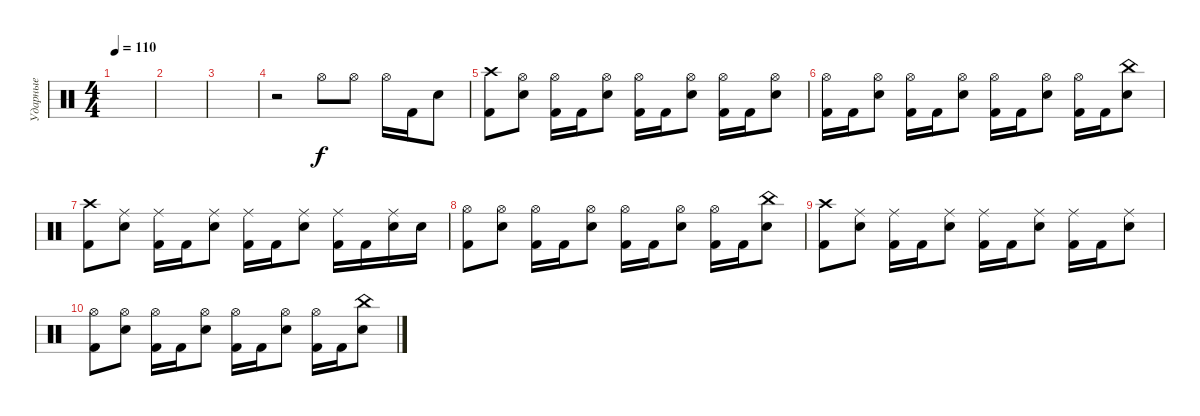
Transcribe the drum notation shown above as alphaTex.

\track ("Ударные" "Ударные") {instrument percussion}
\staff {score}
\articulation defaults
\ts (4 4)
\tempo 110
\clef neutral
\ks c
|
|
|
r.2 "Hi-Hat (open)".8 "Hi-Hat (open)".8 "Hi-Hat (open)".16 "Kick (hit) 2".16 "Electric Snare (hit)".8 |
("Crash high (hit)" "Kick (hit) 2").8 ("Hi-Hat (open)" "Electric Snare (hit)").8 ("Hi-Hat (open)" "Kick (hit) 2").16 "Kick (hit) 2".16 ("Hi-Hat (open)" "Electric Snare (hit)").8 ("Hi-Hat (open)" "Kick (hit) 2").16 "Kick (hit) 2".16 ("Hi-Hat (open)" "Electric Snare (hit)").8 ("Hi-Hat (open)" "Kick (hit) 2").16 "Kick (hit) 2".16 ("Hi-Hat (open)" "Electric Snare (hit)").8 |
("Hi-Hat (open)" "Kick (hit) 2").16 "Kick (hit) 2".16 ("Hi-Hat (open)" "Electric Snare (hit)").8 ("Hi-Hat (open)" "Kick (hit) 2").16 "Kick (hit) 2".16 ("Hi-Hat (open)" "Electric Snare (hit)").8 ("Hi-Hat (open)" "Kick (hit) 2").16 "Kick (hit) 2".16 ("Hi-Hat (open)" "Electric Snare (hit)").8 ("Hi-Hat (open)" "Kick (hit) 2").16 "Kick (hit) 2".16 ("China (hit)" "Electric Snare (hit)").8 |
("Crash high (hit)" "Kick (hit) 2").8 ("Ride (middle)" "Electric Snare (hit)").8 ("Ride (middle)" "Kick (hit) 2").16 "Kick (hit) 2".16 ("Ride (middle)" "Electric Snare (hit)").8 ("Ride (middle)" "Kick (hit) 2").16 "Kick (hit) 2".16 ("Ride (middle)" "Electric Snare (hit)").8 ("Ride (middle)" "Kick (hit) 2").16 "Kick (hit) 2".16 ("Ride (middle)" "Electric Snare (hit)").16 "Electric Snare (hit)".16 |
("Hi-Hat (open)" "Kick (hit) 2").8 ("Hi-Hat (open)" "Electric Snare (hit)").8 ("Hi-Hat (open)" "Kick (hit) 2").16 "Kick (hit) 2".16 ("Hi-Hat (open)" "Electric Snare (hit)").8 ("Hi-Hat (open)" "Kick (hit) 2").16 "Kick (hit) 2".16 ("Hi-Hat (open)" "Electric Snare (hit)").8 ("Hi-Hat (open)" "Kick (hit) 2").16 "Kick (hit) 2".16 ("China (hit)" "Electric Snare (hit)").8 |
("Crash high (hit)" "Kick (hit) 2").8 ("Ride (middle)" "Electric Snare (hit)").8 ("Ride (middle)" "Kick (hit) 2").16 "Kick (hit) 2".16 ("Ride (middle)" "Electric Snare (hit)").8 ("Ride (middle)" "Kick (hit) 2").16 "Kick (hit) 2".16 ("Ride (middle)" "Electric Snare (hit)").8 ("Ride (middle)" "Kick (hit) 2").16 "Kick (hit) 2".16 ("Ride (middle)" "Electric Snare (hit)").8 |
("Hi-Hat (open)" "Kick (hit) 2").8 ("Hi-Hat (open)" "Electric Snare (hit)").8 ("Hi-Hat (open)" "Kick (hit) 2").16 "Kick (hit) 2".16 ("Hi-Hat (open)" "Electric Snare (hit)").8 ("Hi-Hat (open)" "Kick (hit) 2").16 "Kick (hit) 2".16 ("Hi-Hat (open)" "Electric Snare (hit)").8 ("Hi-Hat (open)" "Kick (hit) 2").16 "Kick (hit) 2".16 ("China (hit)" "Electric Snare (hit)").8
